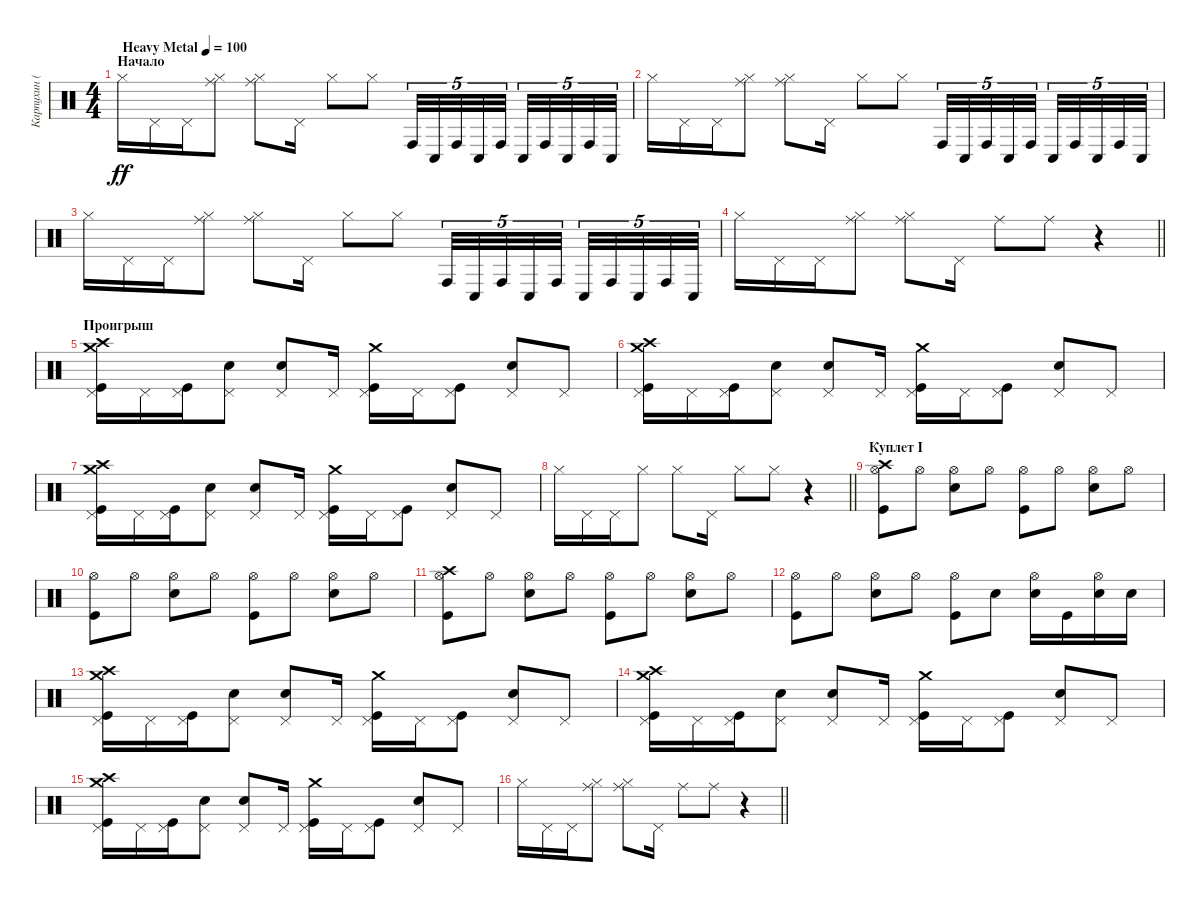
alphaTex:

\track ("Карпухин (ударные)" "Карпухин (") {instrument percussion}
\staff {score}
\articulation defaults
\ts (4 4)
\section ("" "Начало")
\tempo (100 "Heavy Metal")
\clef neutral
\ks c "Hi-Hat (closed)".16{dy ff} "Pedal Hi-Hat (hit)".16 "Pedal Hi-Hat (hit)".16
("Hi-Hat (closed)" "Ride (middle)").8 ("Hi-Hat (closed)" "Ride (middle)").8 "Pedal Hi-Hat (hit)".16 "Hi-Hat (closed)".8 "Hi-Hat (closed)".8 "Conga high (hit)".32{tu (5 4)} "Conga low (hit)".32{tu (5 4)} "Conga high (hit)".32{tu (5 4)} "Conga low (hit)".32{tu (5 4)} "Conga high (hit)".32{tu (5 4) beam splitsecondary} "Conga low (hit)".32{tu (5 4)} "Conga high (hit)".32{tu (5 4)} "Conga low (hit)".32{tu (5 4)} "Conga high (hit)".32{tu (5 4)} "Conga low (hit)".32{tu (5 4)} |
"Hi-Hat (closed)".16 "Pedal Hi-Hat (hit)".16 "Pedal Hi-Hat (hit)".16 ("Hi-Hat (closed)" "Ride (middle)").8 ("Hi-Hat (closed)" "Ride (middle)").8 "Pedal Hi-Hat (hit)".16 "Hi-Hat (closed)".8 "Hi-Hat (closed)".8 "Conga high (hit)".32{tu (5 4)} "Conga low (hit)".32{tu (5 4)} "Conga high (hit)".32{tu (5 4)} "Conga low (hit)".32{tu (5 4)} "Conga high (hit)".32{tu (5 4) beam splitsecondary} "Conga low (hit)".32{tu (5 4)} "Conga high (hit)".32{tu (5 4)} "Conga low (hit)".32{tu (5 4)} "Conga high (hit)".32{tu (5 4)} "Conga low (hit)".32{tu (5 4)} |
"Hi-Hat (closed)".16 "Pedal Hi-Hat (hit)".16 "Pedal Hi-Hat (hit)".16 ("Hi-Hat (closed)" "Ride (middle)").8 ("Hi-Hat (closed)" "Ride (middle)").8 "Pedal Hi-Hat (hit)".16 "Hi-Hat (closed)".8 "Hi-Hat (closed)".8 "Conga high (hit)".32{tu (5 4)} "Conga low (hit)".32{tu (5 4)} "Conga high (hit)".32{tu (5 4)} "Conga low (hit)".32{tu (5 4)} "Conga high (hit)".32{tu (5 4) beam splitsecondary} "Conga low (hit)".32{tu (5 4)} "Conga high (hit)".32{tu (5 4)} "Conga low (hit)".32{tu (5 4)} "Conga high (hit)".32{tu (5 4)} "Conga low (hit)".32{tu (5 4)} |
\barLineRight lightlight "Hi-Hat (closed)".16 "Pedal Hi-Hat (hit)".16 "Pedal Hi-Hat (hit)".16
("Hi-Hat (closed)" "Ride (middle)").8 ("Hi-Hat (closed)" "Ride (middle)").8 "Pedal Hi-Hat (hit)".16 "Ride (middle)".8 "Ride (middle)".8 r.4 |
\section ("" "Проигрыш")
("Pedal Hi-Hat (hit)" "Kick (hit)" "Crash high (hit)" "Crash medium (hit)").16 "Pedal Hi-Hat (hit)".16 ("Pedal Hi-Hat (hit)" "Kick (hit)").16 ("Pedal Hi-Hat (hit)" "Snare (hit) 2").8 ("Pedal Hi-Hat (hit)" "Snare (hit) 2").8 "Pedal Hi-Hat (hit)".16 ("Pedal Hi-Hat (hit)" "Kick (hit)" "Crash medium (hit)").16 "Pedal Hi-Hat (hit)".16 ("Pedal Hi-Hat (hit)" "Kick (hit)").8 ("Pedal Hi-Hat (hit)" "Snare (hit) 2").8 "Pedal Hi-Hat (hit)".8 |
("Pedal Hi-Hat (hit)" "Kick (hit)" "Crash high (hit)" "Crash medium (hit)").16 "Pedal Hi-Hat (hit)".16 ("Pedal Hi-Hat (hit)" "Kick (hit)").16 ("Pedal Hi-Hat (hit)" "Snare (hit) 2").8 ("Pedal Hi-Hat (hit)" "Snare (hit) 2").8 "Pedal Hi-Hat (hit)".16 ("Pedal Hi-Hat (hit)" "Kick (hit)" "Crash medium (hit)").16 "Pedal Hi-Hat (hit)".16 ("Pedal Hi-Hat (hit)" "Kick (hit)").8 ("Pedal Hi-Hat (hit)" "Snare (hit) 2").8 "Pedal Hi-Hat (hit)".8 |
("Pedal Hi-Hat (hit)" "Kick (hit)" "Crash high (hit)" "Crash medium (hit)").16 "Pedal Hi-Hat (hit)".16 ("Pedal Hi-Hat (hit)" "Kick (hit)").16 ("Pedal Hi-Hat (hit)" "Snare (hit) 2").8 ("Pedal Hi-Hat (hit)" "Snare (hit) 2").8 "Pedal Hi-Hat (hit)".16 ("Pedal Hi-Hat (hit)" "Kick (hit)" "Crash medium (hit)").16 "Pedal Hi-Hat (hit)".16 ("Pedal Hi-Hat (hit)" "Kick (hit)").8 ("Pedal Hi-Hat (hit)" "Snare (hit) 2").8 "Pedal Hi-Hat (hit)".8 |
\barLineRight lightlight "Hi-Hat (closed)".16 "Pedal Hi-Hat (hit)".16 "Pedal Hi-Hat (hit)".16 "Hi-Hat (closed)".8 "Hi-Hat (closed)".8 "Pedal Hi-Hat (hit)".16 "Hi-Hat (closed)".8 "Hi-Hat (closed)".8
r.4 |
\section ("" "Куплет I")
("Hi-Hat (open)" "Kick (hit)" "Crash high (hit)").8 "Hi-Hat (open)".8 ("Hi-Hat (open)" "Snare (hit) 2").8 "Hi-Hat (open)".8 ("Hi-Hat (open)" "Kick (hit)").8 "Hi-Hat (open)".8 ("Hi-Hat (open)" "Snare (hit) 2").8 "Hi-Hat (open)".8 |
("Hi-Hat (open)" "Kick (hit)").8 "Hi-Hat (open)".8 ("Hi-Hat (open)" "Snare (hit) 2").8 "Hi-Hat (open)".8 ("Hi-Hat (open)" "Kick (hit)").8 "Hi-Hat (open)".8 ("Hi-Hat (open)" "Snare (hit) 2").8 "Hi-Hat (open)".8 |
("Hi-Hat (open)" "Kick (hit)" "Crash high (hit)").8 "Hi-Hat (open)".8 ("Hi-Hat (open)" "Snare (hit) 2").8 "Hi-Hat (open)".8 ("Hi-Hat (open)" "Kick (hit)").8 "Hi-Hat (open)".8 ("Hi-Hat (open)" "Snare (hit) 2").8 "Hi-Hat (open)".8 |
("Hi-Hat (open)" "Kick (hit)").8 "Hi-Hat (open)".8 ("Hi-Hat (open)" "Snare (hit) 2").8 "Hi-Hat (open)".8 ("Hi-Hat (open)" "Kick (hit)").8 "Snare (hit) 2".8 ("Hi-Hat (open)" "Snare (hit) 2").16 "Kick (hit)".16 ("Hi-Hat (open)" "Snare (hit) 2").16 "Snare (hit) 2".16 |
("Pedal Hi-Hat (hit)" "Kick (hit)" "Crash high (hit)" "Crash medium (hit)").16 "Pedal Hi-Hat (hit)".16 ("Pedal Hi-Hat (hit)" "Kick (hit)").16 ("Pedal Hi-Hat (hit)" "Snare (hit) 2").8 ("Pedal Hi-Hat (hit)" "Snare (hit) 2").8 "Pedal Hi-Hat (hit)".16 ("Pedal Hi-Hat (hit)" "Kick (hit)" "Crash medium (hit)").16 "Pedal Hi-Hat (hit)".16 ("Pedal Hi-Hat (hit)" "Kick (hit)").8 ("Pedal Hi-Hat (hit)" "Snare (hit) 2").8 "Pedal Hi-Hat (hit)".8 |
("Pedal Hi-Hat (hit)" "Kick (hit)" "Crash high (hit)" "Crash medium (hit)").16 "Pedal Hi-Hat (hit)".16 ("Pedal Hi-Hat (hit)" "Kick (hit)").16 ("Pedal Hi-Hat (hit)" "Snare (hit) 2").8 ("Pedal Hi-Hat (hit)" "Snare (hit) 2").8 "Pedal Hi-Hat (hit)".16 ("Pedal Hi-Hat (hit)" "Kick (hit)" "Crash medium (hit)").16 "Pedal Hi-Hat (hit)".16 ("Pedal Hi-Hat (hit)" "Kick (hit)").8 ("Pedal Hi-Hat (hit)" "Snare (hit) 2").8 "Pedal Hi-Hat (hit)".8 |
("Pedal Hi-Hat (hit)" "Kick (hit)" "Crash high (hit)" "Crash medium (hit)").16 "Pedal Hi-Hat (hit)".16 ("Pedal Hi-Hat (hit)" "Kick (hit)").16 ("Pedal Hi-Hat (hit)" "Snare (hit) 2").8 ("Pedal Hi-Hat (hit)" "Snare (hit) 2").8 "Pedal Hi-Hat (hit)".16 ("Pedal Hi-Hat (hit)" "Kick (hit)" "Crash medium (hit)").16 "Pedal Hi-Hat (hit)".16 ("Pedal Hi-Hat (hit)" "Kick (hit)").8 ("Pedal Hi-Hat (hit)" "Snare (hit) 2").8 "Pedal Hi-Hat (hit)".8 |
\barLineRight lightlight "Hi-Hat (closed)".16 "Pedal Hi-Hat (hit)".16 "Pedal Hi-Hat (hit)".16
("Hi-Hat (closed)" "Ride (middle)").8 ("Hi-Hat (closed)" "Ride (middle)").8 "Pedal Hi-Hat (hit)".16 "Ride (middle)".8 "Ride (middle)".8 r.4
